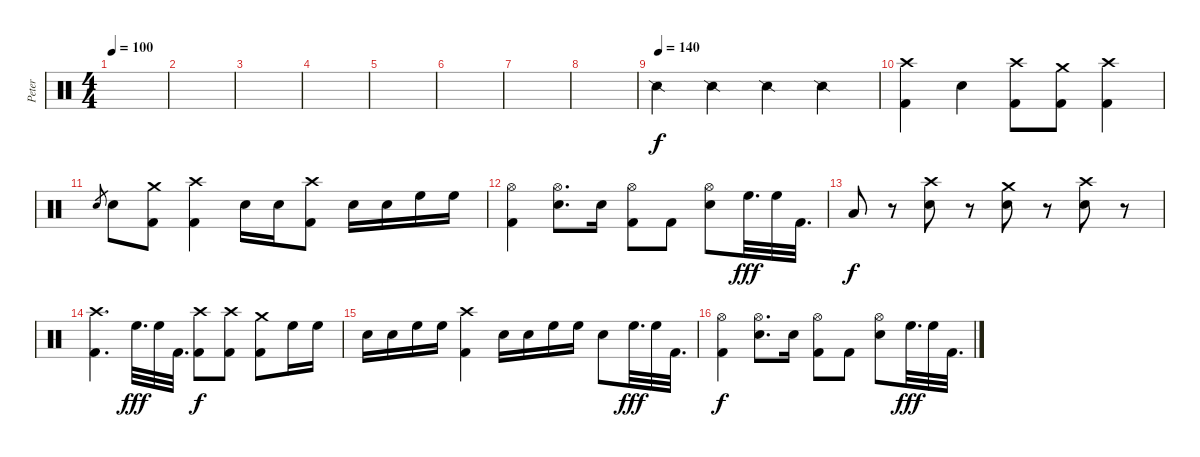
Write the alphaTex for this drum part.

\track ("Peter" "Peter") {instrument percussion}
\staff {score}
\articulation defaults
\ts (4 4)
\tempo 100
\clef neutral
\ks c
|
|
|
|
|
|
|
|
\tempo 135
\tempo (140)
"Snare (side stick) 2".4 "Snare (side stick) 2".4 "Snare (side stick) 2".4 "Snare (side stick) 2".4 |
("Crash high (hit)" "Kick (hit) 2").4 "Snare (hit) 2".4 ("Crash high (hit)" "Kick (hit) 2").8 ("Crash medium (hit)" "Kick (hit) 2").8 ("Crash high (hit)" "Kick (hit) 2").4 |
"Electric Snare (hit)".8{gr} "Snare (hit) 2".8 ("Crash medium (hit)" "Kick (hit) 2").8 ("Crash high (hit)" "Kick (hit) 2").4 "Snare (hit) 2".16 "Snare (hit) 2".16 ("Crash high (hit)" "Kick (hit) 2").8 "Snare (hit) 2".16 "Snare (hit) 2".16 "High Floor Tom (hit)".16 "High Floor Tom (hit)".16 |
("Hi-Hat (open)" "Kick (hit) 2").4 ("Hi-Hat (open)" "Snare (hit) 2").8{d} "Snare (hit) 2".16 ("Hi-Hat (open)" "Kick (hit) 2").8 "Kick (hit) 2".8 ("Hi-Hat (open)" "Snare (hit) 2").8 "High Floor Tom (hit)".32{d dy fff} "High Floor Tom (hit)".32 "Kick (hit) 2".32{d} |
"Low Floor Tom (hit)".8{dy f} r.8 ("Crash high (hit)" "Snare (hit) 2").8 r.8 ("Crash medium (hit)" "Snare (hit) 2").8 r.8 ("Crash high (hit)" "Snare (hit) 2").8 r.8 |
("Crash high (hit)" "Kick (hit) 2").4{d} "High Floor Tom (hit)".32{d dy fff} "High Floor Tom (hit)".32 "Kick (hit) 2".32{d} ("Crash high (hit)" "Kick (hit) 2").8{dy f} ("Crash high (hit)" "Kick (hit) 2").8 ("Crash medium (hit)" "Kick (hit) 2").8 "High Floor Tom (hit)".16 "High Floor Tom (hit)".16 |
"Electric Snare (hit)".16 "Electric Snare (hit)".16 "High Floor Tom (hit)".16 "High Floor Tom (hit)".16 ("Crash high (hit)" "Kick (hit) 2").4 "Electric Snare (hit)".16 "Electric Snare (hit)".16 "High Floor Tom (hit)".16 "High Floor Tom (hit)".16 "Electric Snare (hit)".8 "High Floor Tom (hit)".32{d dy fff} "High Floor Tom (hit)".32 "Kick (hit) 2".32{d} |
("Hi-Hat (open)" "Kick (hit) 2").4{dy f} ("Hi-Hat (open)" "Snare (hit) 2").8{d} "Snare (hit) 2".16 ("Hi-Hat (open)" "Kick (hit) 2").8 "Kick (hit) 2".8 ("Hi-Hat (open)" "Snare (hit) 2").8 "High Floor Tom (hit)".32{d dy fff} "High Floor Tom (hit)".32 "Kick (hit) 2".32{d}
